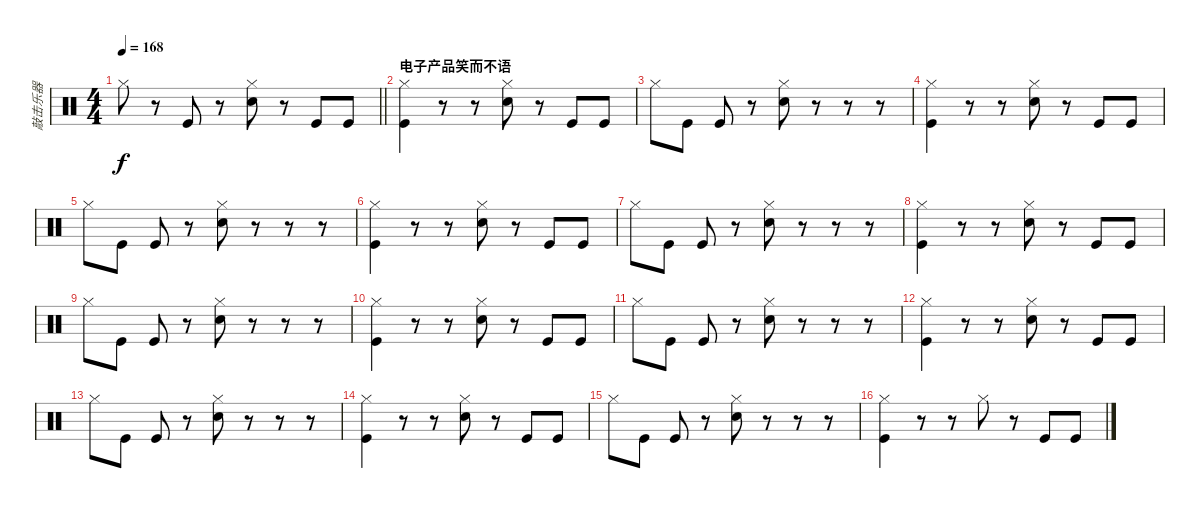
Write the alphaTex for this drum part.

\track ("敲击乐器" "敲击乐器") {instrument percussion}
\staff {score}
\articulation defaults
\ts (4 4)
\section ("" "")
\tempo 168
\clef neutral
\barLineRight lightlight
\ks c "Hi-Hat (closed)".8{dy f}
r.8 "Kick (hit)".8 r.8 ("Hi-Hat (closed)" "Snare (hit) 2").8 r.8 "Kick (hit)".8 "Kick (hit)".8 |
\section ("" "电子产品笑而不语")
("Hi-Hat (closed)" "Kick (hit)").4 r.8 r.8 ("Hi-Hat (closed)" "Snare (hit) 2").8 r.8 "Kick (hit)".8 "Kick (hit)".8 |
"Hi-Hat (closed)".8 "Kick (hit)".8 "Kick (hit)".8 r.8 ("Hi-Hat (closed)" "Snare (hit) 2").8 r.8 r.8 r.8 |
("Hi-Hat (closed)" "Kick (hit)").4 r.8 r.8 ("Hi-Hat (closed)" "Snare (hit) 2").8 r.8 "Kick (hit)".8 "Kick (hit)".8 |
"Hi-Hat (closed)".8 "Kick (hit)".8 "Kick (hit)".8 r.8 ("Hi-Hat (closed)" "Snare (hit) 2").8 r.8 r.8 r.8 |
("Hi-Hat (closed)" "Kick (hit)").4 r.8 r.8 ("Hi-Hat (closed)" "Snare (hit) 2").8 r.8 "Kick (hit)".8 "Kick (hit)".8 |
"Hi-Hat (closed)".8 "Kick (hit)".8 "Kick (hit)".8 r.8 ("Hi-Hat (closed)" "Snare (hit) 2").8 r.8 r.8 r.8 |
("Hi-Hat (closed)" "Kick (hit)").4 r.8 r.8 ("Hi-Hat (closed)" "Snare (hit) 2").8 r.8 "Kick (hit)".8 "Kick (hit)".8 |
"Hi-Hat (closed)".8 "Kick (hit)".8 "Kick (hit)".8 r.8 ("Hi-Hat (closed)" "Snare (hit) 2").8 r.8 r.8 r.8 |
("Hi-Hat (closed)" "Kick (hit)").4 r.8 r.8 ("Hi-Hat (closed)" "Snare (hit) 2").8 r.8 "Kick (hit)".8 "Kick (hit)".8 |
"Hi-Hat (closed)".8 "Kick (hit)".8 "Kick (hit)".8 r.8 ("Hi-Hat (closed)" "Snare (hit) 2").8 r.8 r.8 r.8 |
("Hi-Hat (closed)" "Kick (hit)").4 r.8 r.8 ("Hi-Hat (closed)" "Snare (hit) 2").8 r.8 "Kick (hit)".8 "Kick (hit)".8 |
"Hi-Hat (closed)".8 "Kick (hit)".8 "Kick (hit)".8 r.8 ("Hi-Hat (closed)" "Snare (hit) 2").8 r.8 r.8 r.8 |
("Hi-Hat (closed)" "Kick (hit)").4 r.8 r.8 ("Hi-Hat (closed)" "Snare (hit) 2").8 r.8 "Kick (hit)".8 "Kick (hit)".8 |
"Hi-Hat (closed)".8 "Kick (hit)".8 "Kick (hit)".8 r.8 ("Hi-Hat (closed)" "Snare (hit) 2").8 r.8 r.8 r.8 |
("Hi-Hat (closed)" "Kick (hit)").4 r.8 r.8 "Hi-Hat (closed)".8 r.8 "Kick (hit)".8 "Kick (hit)".8
